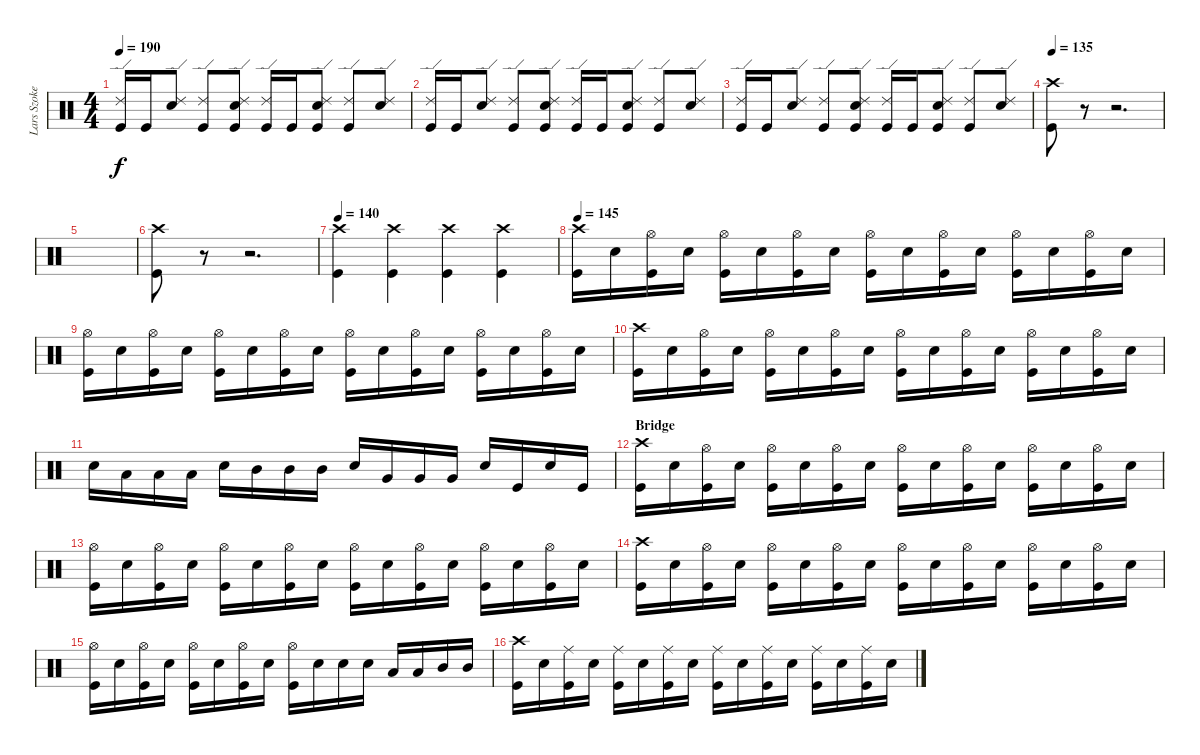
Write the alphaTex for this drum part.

\track ("Lars Szoke" "Lars Szoke") {instrument percussion}
\staff {score}
\articulation defaults
\ts (4 4)
\tempo 190
\clef neutral
\ks c
("Ride (edge) 2" "Kick (hit)").16{dy f} "Kick (hit)".16 ("Ride (edge) 2" "Snare (hit) 2").8 ("Ride (edge) 2" "Kick (hit)").8 ("Ride (edge) 2" "Snare (hit) 2" "Kick (hit)").8 ("Ride (edge) 2" "Kick (hit)").16 "Kick (hit)".16 ("Ride (edge) 2" "Snare (hit) 2" "Kick (hit)").8 ("Ride (edge) 2" "Kick (hit)").8 ("Ride (edge) 2" "Snare (hit) 2").8 |
("Ride (edge) 2" "Kick (hit)").16 "Kick (hit)".16 ("Ride (edge) 2" "Snare (hit) 2").8 ("Ride (edge) 2" "Kick (hit)").8 ("Ride (edge) 2" "Snare (hit) 2" "Kick (hit)").8 ("Ride (edge) 2" "Kick (hit)").16 "Kick (hit)".16 ("Ride (edge) 2" "Snare (hit) 2" "Kick (hit)").8 ("Ride (edge) 2" "Kick (hit)").8 ("Ride (edge) 2" "Snare (hit) 2").8 |
("Ride (edge) 2" "Kick (hit)").16 "Kick (hit)".16 ("Ride (edge) 2" "Snare (hit) 2").8 ("Ride (edge) 2" "Kick (hit)").8 ("Ride (edge) 2" "Snare (hit) 2" "Kick (hit)").8 ("Ride (edge) 2" "Kick (hit)").16 "Kick (hit)".16 ("Ride (edge) 2" "Snare (hit) 2" "Kick (hit)").8 ("Ride (edge) 2" "Kick (hit)").8 ("Ride (edge) 2" "Snare (hit) 2").8 |
\tempo 135
("Crash high (hit)" "Kick (hit)").8 r.8 r.2{d} |
|
("Crash high (hit)" "Kick (hit)").8 r.8 r.2{d} |
\tempo 140
("Crash high (hit)" "Kick (hit)").4 ("Crash high (hit)" "Kick (hit)").4 ("Crash high (hit)" "Kick (hit)").4 ("Crash high (hit)" "Kick (hit)").4 |
\tempo 145
("Crash high (hit)" "Kick (hit)").16 "Snare (hit) 2".16 ("Hi-Hat (open)" "Kick (hit)").16 "Snare (hit) 2".16 ("Hi-Hat (open)" "Kick (hit)").16 "Snare (hit) 2".16 ("Hi-Hat (open)" "Kick (hit)").16 "Snare (hit) 2".16 ("Hi-Hat (open)" "Kick (hit)").16 "Snare (hit) 2".16 ("Hi-Hat (open)" "Kick (hit)").16 "Snare (hit) 2".16 ("Hi-Hat (open)" "Kick (hit)").16 "Snare (hit) 2".16 ("Hi-Hat (open)" "Kick (hit)").16 "Snare (hit) 2".16 |
("Hi-Hat (open)" "Kick (hit)").16 "Snare (hit) 2".16 ("Hi-Hat (open)" "Kick (hit)").16 "Snare (hit) 2".16 ("Hi-Hat (open)" "Kick (hit)").16 "Snare (hit) 2".16 ("Hi-Hat (open)" "Kick (hit)").16 "Snare (hit) 2".16 ("Hi-Hat (open)" "Kick (hit)").16 "Snare (hit) 2".16 ("Hi-Hat (open)" "Kick (hit)").16 "Snare (hit) 2".16 ("Hi-Hat (open)" "Kick (hit)").16 "Snare (hit) 2".16 ("Hi-Hat (open)" "Kick (hit)").16 "Snare (hit) 2".16 |
("Crash high (hit)" "Kick (hit)").16 "Snare (hit) 2".16 ("Hi-Hat (open)" "Kick (hit)").16 "Snare (hit) 2".16 ("Hi-Hat (open)" "Kick (hit)").16 "Snare (hit) 2".16 ("Hi-Hat (open)" "Kick (hit)").16 "Snare (hit) 2".16 ("Hi-Hat (open)" "Kick (hit)").16 "Snare (hit) 2".16 ("Hi-Hat (open)" "Kick (hit)").16 "Snare (hit) 2".16 ("Hi-Hat (open)" "Kick (hit)").16 "Snare (hit) 2".16 ("Hi-Hat (open)" "Kick (hit)").16 "Snare (hit) 2".16 |
"Snare (hit) 2".16 "Low Tom (hit)".16 "Low Tom (hit)".16 "Low Tom (hit)".16 "Snare (hit) 2".16 "Mid Tom (hit)".16 "Mid Tom (hit)".16 "Mid Tom (hit)".16 "Snare (hit) 2".16 "Very Low Tom (hit)".16 "Very Low Tom (hit)".16 "Very Low Tom (hit)".16 "Snare (hit) 2".16 "Kick (hit)".16 "Snare (hit) 2".16 "Kick (hit)".16 |
\section ("" "Bridge")
("Crash high (hit)" "Kick (hit)").16 "Snare (hit) 2".16 ("Hi-Hat (open)" "Kick (hit)").16 "Snare (hit) 2".16 ("Hi-Hat (open)" "Kick (hit)").16 "Snare (hit) 2".16 ("Hi-Hat (open)" "Kick (hit)").16 "Snare (hit) 2".16 ("Hi-Hat (open)" "Kick (hit)").16 "Snare (hit) 2".16 ("Hi-Hat (open)" "Kick (hit)").16 "Snare (hit) 2".16 ("Hi-Hat (open)" "Kick (hit)").16 "Snare (hit) 2".16 ("Hi-Hat (open)" "Kick (hit)").16 "Snare (hit) 2".16 |
("Hi-Hat (open)" "Kick (hit)").16 "Snare (hit) 2".16 ("Hi-Hat (open)" "Kick (hit)").16 "Snare (hit) 2".16 ("Hi-Hat (open)" "Kick (hit)").16 "Snare (hit) 2".16 ("Hi-Hat (open)" "Kick (hit)").16 "Snare (hit) 2".16 ("Hi-Hat (open)" "Kick (hit)").16 "Snare (hit) 2".16 ("Hi-Hat (open)" "Kick (hit)").16 "Snare (hit) 2".16 ("Hi-Hat (open)" "Kick (hit)").16 "Snare (hit) 2".16 ("Hi-Hat (open)" "Kick (hit)").16 "Snare (hit) 2".16 |
("Crash high (hit)" "Kick (hit)").16 "Snare (hit) 2".16 ("Hi-Hat (open)" "Kick (hit)").16 "Snare (hit) 2".16 ("Hi-Hat (open)" "Kick (hit)").16 "Snare (hit) 2".16 ("Hi-Hat (open)" "Kick (hit)").16 "Snare (hit) 2".16 ("Hi-Hat (open)" "Kick (hit)").16 "Snare (hit) 2".16 ("Hi-Hat (open)" "Kick (hit)").16 "Snare (hit) 2".16 ("Hi-Hat (open)" "Kick (hit)").16 "Snare (hit) 2".16 ("Hi-Hat (open)" "Kick (hit)").16 "Snare (hit) 2".16 |
("Hi-Hat (open)" "Kick (hit)").16 "Snare (hit) 2".16 ("Hi-Hat (open)" "Kick (hit)").16 "Snare (hit) 2".16 ("Hi-Hat (open)" "Kick (hit)").16 "Snare (hit) 2".16 ("Hi-Hat (open)" "Kick (hit)").16 "Snare (hit) 2".16 ("Hi-Hat (open)" "Kick (hit)").16 "Snare (hit) 2".16 "Snare (hit) 2".16 "Snare (hit) 2".16 "Low Tom (hit)".16 "Low Tom (hit)".16 "Mid Tom (hit)".16 "Mid Tom (hit)".16 |
("Crash high (hit)" "Kick (hit)").16 "Snare (hit) 2".16 ("Ride (middle)" "Kick (hit)").16 "Snare (hit) 2".16 ("Ride (middle)" "Kick (hit)").16 "Snare (hit) 2".16 ("Ride (middle)" "Kick (hit)").16 "Snare (hit) 2".16 ("Ride (middle)" "Kick (hit)").16 "Snare (hit) 2".16 ("Ride (middle)" "Kick (hit)").16 "Snare (hit) 2".16 ("Ride (middle)" "Kick (hit)").16 "Snare (hit) 2".16 ("Ride (middle)" "Kick (hit)").16 "Snare (hit) 2".16
